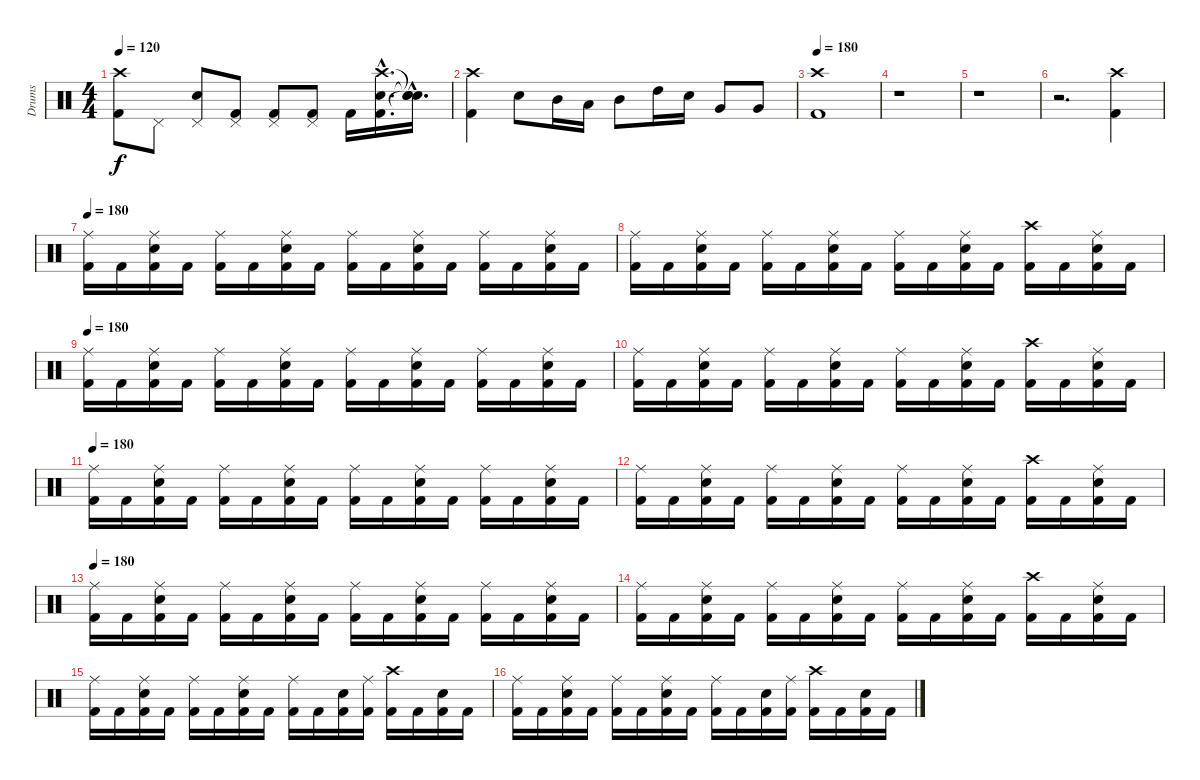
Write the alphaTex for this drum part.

\track ("Drums" "Drums") {instrument percussion}
\staff {score}
\articulation defaults
\ts (4 4)
\tempo 120
\clef neutral
\ks c
("Crash high (hit)" "Kick (hit) 2").8{dy f} "Pedal Hi-Hat (hit)".8 ("Pedal Hi-Hat (hit)" "Electric Snare (hit)").8 ("Pedal Hi-Hat (hit)" "Kick (hit) 2").8 ("Pedal Hi-Hat (hit)" "Kick (hit) 2").8 ("Pedal Hi-Hat (hit)" "Kick (hit) 2").8 "Kick (hit) 2".16 ("Crash high (hit)"{hac} "Electric Snare (hit)"{hac} "Kick (hit) 2"{hac}).16{d} ("Snare (hit)"{hac t} "Snare (hit)"{hac t} "Snare (hit)"{hac t}).16{d} |
("Crash high (hit)" "Kick (hit) 2").4 "Electric Snare (hit)".8 "Mid Tom (hit)".16 "Low Tom (hit)".16 "Mid Tom (hit)".8 "High Tom (hit)".16 "Electric Snare (hit)".16 "Very Low Tom (hit)".8 "Very Low Tom (hit)".8 |
\tempo 180
("Crash high (hit)" "Kick (hit) 2").1 |
r.1 |
r.1 |
r.2{d} ("Crash high (hit)" "Kick (hit) 2").4 |
\tempo 180
("Ride (middle)" "Kick (hit) 2").16 "Kick (hit) 2".16 ("Ride (middle)" "Electric Snare (hit)" "Kick (hit) 2").16 "Kick (hit) 2".16 ("Ride (middle)" "Kick (hit) 2").16 "Kick (hit) 2".16 ("Ride (middle)" "Electric Snare (hit)" "Kick (hit) 2").16 "Kick (hit) 2".16 ("Ride (middle)" "Kick (hit) 2").16 "Kick (hit) 2".16 ("Ride (middle)" "Electric Snare (hit)" "Kick (hit) 2").16 "Kick (hit) 2".16 ("Ride (middle)" "Kick (hit) 2").16 "Kick (hit) 2".16 ("Ride (middle)" "Electric Snare (hit)" "Kick (hit) 2").16 "Kick (hit) 2".16 |
("Ride (middle)" "Kick (hit) 2").16 "Kick (hit) 2".16 ("Ride (middle)" "Electric Snare (hit)" "Kick (hit) 2").16 "Kick (hit) 2".16 ("Ride (middle)" "Kick (hit) 2").16 "Kick (hit) 2".16 ("Ride (middle)" "Electric Snare (hit)" "Kick (hit) 2").16 "Kick (hit) 2".16 ("Ride (middle)" "Kick (hit) 2").16 "Kick (hit) 2".16 ("Ride (middle)" "Electric Snare (hit)" "Kick (hit) 2").16 "Kick (hit) 2".16 ("Crash high (hit)" "Kick (hit) 2").16 "Kick (hit) 2".16 ("Ride (middle)" "Electric Snare (hit)" "Kick (hit) 2").16 "Kick (hit) 2".16 |
\tempo 180
("Ride (middle)" "Kick (hit) 2").16 "Kick (hit) 2".16 ("Ride (middle)" "Electric Snare (hit)" "Kick (hit) 2").16 "Kick (hit) 2".16 ("Ride (middle)" "Kick (hit) 2").16 "Kick (hit) 2".16 ("Ride (middle)" "Electric Snare (hit)" "Kick (hit) 2").16 "Kick (hit) 2".16 ("Ride (middle)" "Kick (hit) 2").16 "Kick (hit) 2".16 ("Ride (middle)" "Electric Snare (hit)" "Kick (hit) 2").16 "Kick (hit) 2".16 ("Ride (middle)" "Kick (hit) 2").16 "Kick (hit) 2".16 ("Ride (middle)" "Electric Snare (hit)" "Kick (hit) 2").16 "Kick (hit) 2".16 |
("Ride (middle)" "Kick (hit) 2").16 "Kick (hit) 2".16 ("Ride (middle)" "Electric Snare (hit)" "Kick (hit) 2").16 "Kick (hit) 2".16 ("Ride (middle)" "Kick (hit) 2").16 "Kick (hit) 2".16 ("Ride (middle)" "Electric Snare (hit)" "Kick (hit) 2").16 "Kick (hit) 2".16 ("Ride (middle)" "Kick (hit) 2").16 "Kick (hit) 2".16 ("Ride (middle)" "Electric Snare (hit)" "Kick (hit) 2").16 "Kick (hit) 2".16 ("Crash high (hit)" "Kick (hit) 2").16 "Kick (hit) 2".16 ("Ride (middle)" "Electric Snare (hit)" "Kick (hit) 2").16 "Kick (hit) 2".16 |
\tempo 180
("Ride (middle)" "Kick (hit) 2").16 "Kick (hit) 2".16 ("Ride (middle)" "Electric Snare (hit)" "Kick (hit) 2").16 "Kick (hit) 2".16 ("Ride (middle)" "Kick (hit) 2").16 "Kick (hit) 2".16 ("Ride (middle)" "Electric Snare (hit)" "Kick (hit) 2").16 "Kick (hit) 2".16 ("Ride (middle)" "Kick (hit) 2").16 "Kick (hit) 2".16 ("Ride (middle)" "Electric Snare (hit)" "Kick (hit) 2").16 "Kick (hit) 2".16 ("Ride (middle)" "Kick (hit) 2").16 "Kick (hit) 2".16 ("Ride (middle)" "Electric Snare (hit)" "Kick (hit) 2").16 "Kick (hit) 2".16 |
("Ride (middle)" "Kick (hit) 2").16 "Kick (hit) 2".16 ("Ride (middle)" "Electric Snare (hit)" "Kick (hit) 2").16 "Kick (hit) 2".16 ("Ride (middle)" "Kick (hit) 2").16 "Kick (hit) 2".16 ("Ride (middle)" "Electric Snare (hit)" "Kick (hit) 2").16 "Kick (hit) 2".16 ("Ride (middle)" "Kick (hit) 2").16 "Kick (hit) 2".16 ("Ride (middle)" "Electric Snare (hit)" "Kick (hit) 2").16 "Kick (hit) 2".16 ("Crash high (hit)" "Kick (hit) 2").16 "Kick (hit) 2".16 ("Ride (middle)" "Electric Snare (hit)" "Kick (hit) 2").16 "Kick (hit) 2".16 |
\tempo 180
("Ride (middle)" "Kick (hit) 2").16 "Kick (hit) 2".16 ("Ride (middle)" "Electric Snare (hit)" "Kick (hit) 2").16 "Kick (hit) 2".16 ("Ride (middle)" "Kick (hit) 2").16 "Kick (hit) 2".16 ("Ride (middle)" "Electric Snare (hit)" "Kick (hit) 2").16 "Kick (hit) 2".16 ("Ride (middle)" "Kick (hit) 2").16 "Kick (hit) 2".16 ("Ride (middle)" "Electric Snare (hit)" "Kick (hit) 2").16 "Kick (hit) 2".16 ("Ride (middle)" "Kick (hit) 2").16 "Kick (hit) 2".16 ("Ride (middle)" "Electric Snare (hit)" "Kick (hit) 2").16 "Kick (hit) 2".16 |
("Ride (middle)" "Kick (hit) 2").16 "Kick (hit) 2".16 ("Ride (middle)" "Electric Snare (hit)" "Kick (hit) 2").16 "Kick (hit) 2".16 ("Ride (middle)" "Kick (hit) 2").16 "Kick (hit) 2".16 ("Ride (middle)" "Electric Snare (hit)" "Kick (hit) 2").16 "Kick (hit) 2".16 ("Ride (middle)" "Kick (hit) 2").16 "Kick (hit) 2".16 ("Ride (middle)" "Electric Snare (hit)" "Kick (hit) 2").16 "Kick (hit) 2".16 ("Crash high (hit)" "Kick (hit) 2").16 "Kick (hit) 2".16 ("Ride (middle)" "Electric Snare (hit)" "Kick (hit) 2").16 "Kick (hit) 2".16 |
("Ride (middle)" "Kick (hit) 2").16 "Kick (hit) 2".16 ("Ride (middle)" "Electric Snare (hit)" "Kick (hit) 2").16 "Kick (hit) 2".16 ("Ride (middle)" "Kick (hit) 2").16 "Kick (hit) 2".16 ("Ride (middle)" "Electric Snare (hit)" "Kick (hit) 2").16 "Kick (hit) 2".16 ("Ride (middle)" "Kick (hit) 2").16 "Kick (hit) 2".16 ("Electric Snare (hit)" "Kick (hit) 2").16 ("Ride (middle)" "Kick (hit) 2").16 ("Crash high (hit)" "Kick (hit) 2").16 "Kick (hit) 2".16 ("Electric Snare (hit)" "Kick (hit) 2").16 "Kick (hit) 2".16 |
("Ride (middle)" "Kick (hit) 2").16 "Kick (hit) 2".16 ("Ride (middle)" "Electric Snare (hit)" "Kick (hit) 2").16 "Kick (hit) 2".16 ("Ride (middle)" "Kick (hit) 2").16 "Kick (hit) 2".16 ("Ride (middle)" "Electric Snare (hit)" "Kick (hit) 2").16 "Kick (hit) 2".16 ("Ride (middle)" "Kick (hit) 2").16 "Kick (hit) 2".16 ("Electric Snare (hit)" "Kick (hit) 2").16 ("Ride (middle)" "Kick (hit) 2").16 ("Crash high (hit)" "Kick (hit) 2").16 "Kick (hit) 2".16 ("Electric Snare (hit)" "Kick (hit) 2").16 "Kick (hit) 2".16
